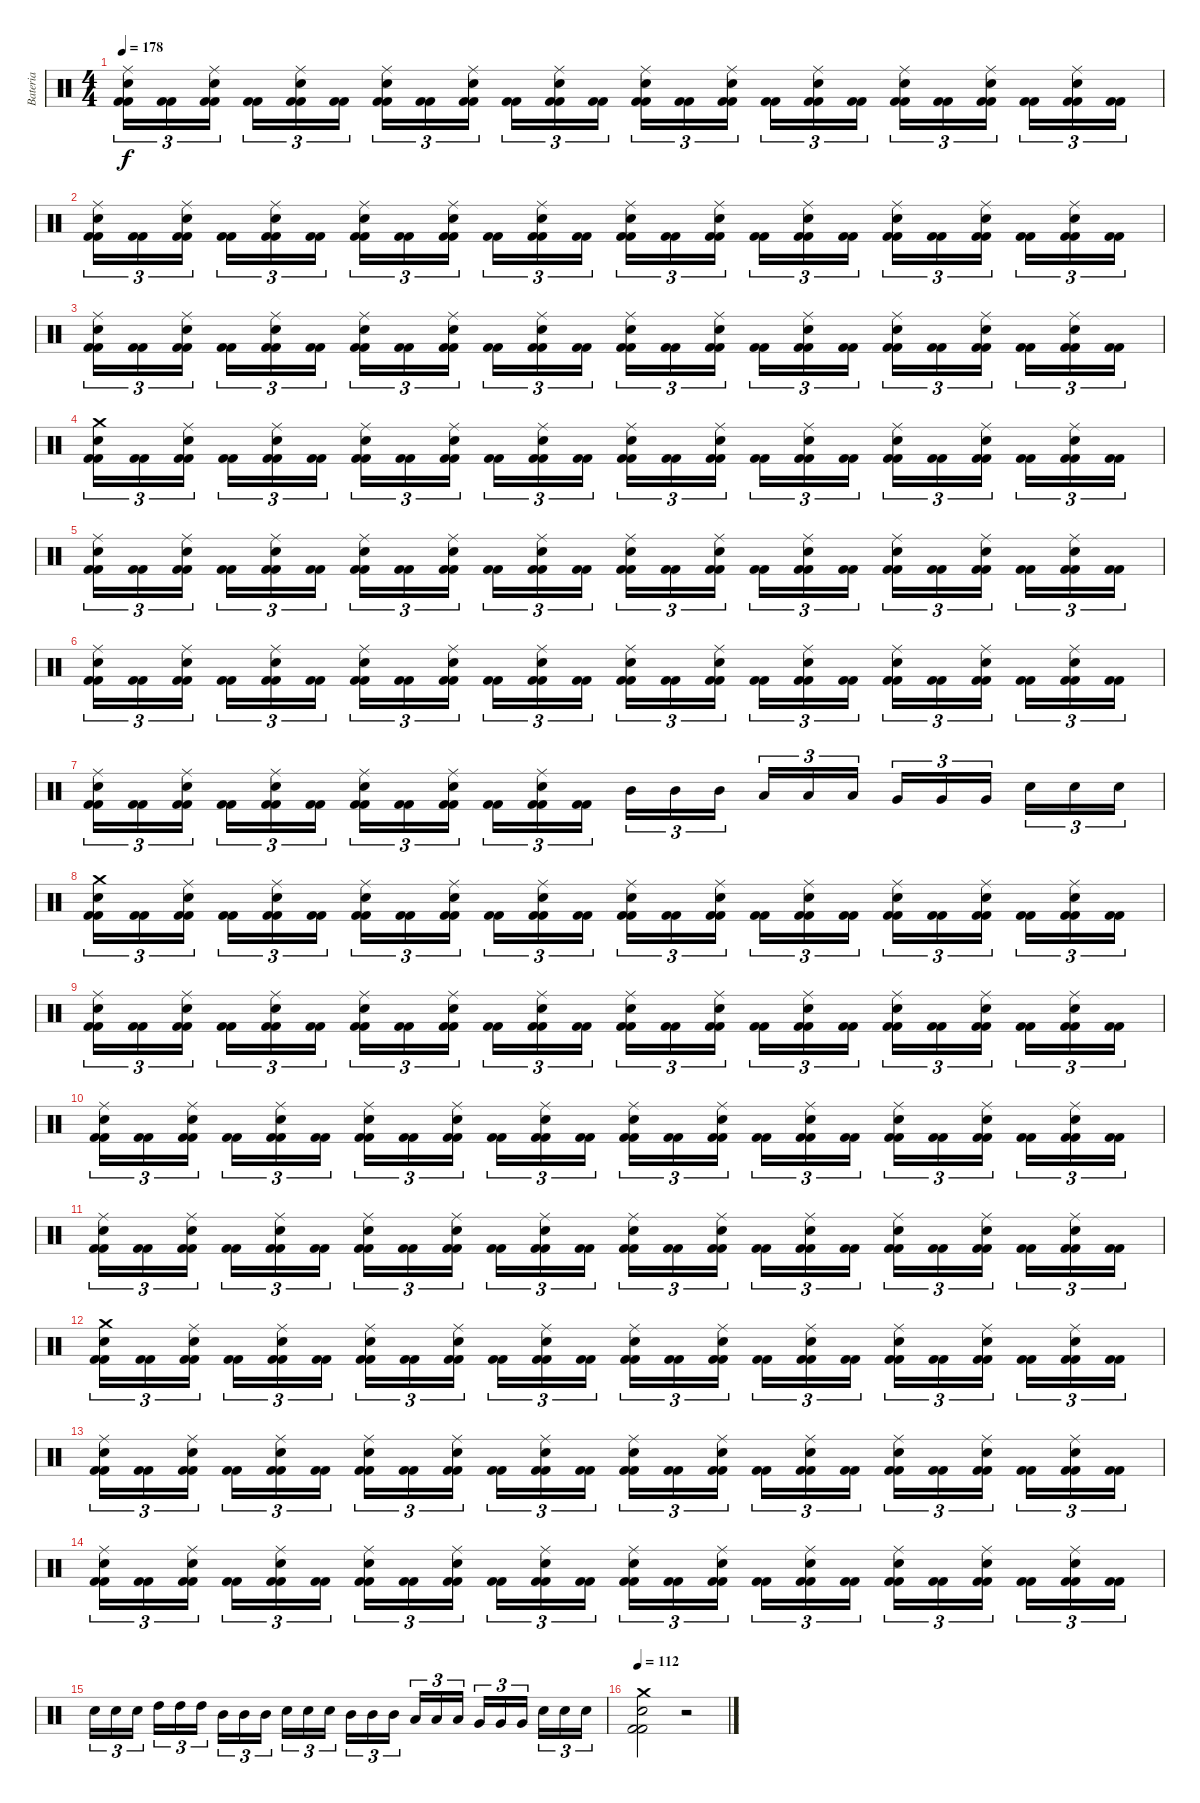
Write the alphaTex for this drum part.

\track ("Bateria" "Bateria") {instrument percussion}
\staff {score}
\articulation defaults
\ts (4 4)
\tempo 178
\clef neutral
\ks c
("Kick (hit) 2" "Kick (hit) 2" "Snare (hit) 2" "Ride (middle)").16{tu (3 2) dy f} ("Kick (hit) 2" "Kick (hit) 2").16{tu (3 2)} ("Kick (hit) 2" "Kick (hit) 2" "Snare (hit) 2" "Ride (middle)").16{tu (3 2)} ("Kick (hit) 2" "Kick (hit) 2").16{tu (3 2)} ("Kick (hit) 2" "Kick (hit) 2" "Snare (hit) 2" "Ride (middle)").16{tu (3 2)} ("Kick (hit) 2" "Kick (hit) 2").16{tu (3 2)} ("Kick (hit) 2" "Kick (hit) 2" "Snare (hit) 2" "Ride (middle)").16{tu (3 2)} ("Kick (hit) 2" "Kick (hit) 2").16{tu (3 2)} ("Kick (hit) 2" "Kick (hit) 2" "Snare (hit) 2" "Ride (middle)").16{tu (3 2)} ("Kick (hit) 2" "Kick (hit) 2").16{tu (3 2)} ("Kick (hit) 2" "Kick (hit) 2" "Snare (hit) 2" "Ride (middle)").16{tu (3 2)} ("Kick (hit) 2" "Kick (hit) 2").16{tu (3 2)} ("Kick (hit) 2" "Kick (hit) 2" "Snare (hit) 2" "Ride (middle)").16{tu (3 2)} ("Kick (hit) 2" "Kick (hit) 2").16{tu (3 2)} ("Kick (hit) 2" "Kick (hit) 2" "Snare (hit) 2" "Ride (middle)").16{tu (3 2)} ("Kick (hit) 2" "Kick (hit) 2").16{tu (3 2)} ("Kick (hit) 2" "Kick (hit) 2" "Snare (hit) 2" "Ride (middle)").16{tu (3 2)} ("Kick (hit) 2" "Kick (hit) 2").16{tu (3 2)} ("Kick (hit) 2" "Kick (hit) 2" "Snare (hit) 2" "Ride (middle)").16{tu (3 2)} ("Kick (hit) 2" "Kick (hit) 2").16{tu (3 2)} ("Kick (hit) 2" "Kick (hit) 2" "Snare (hit) 2" "Ride (middle)").16{tu (3 2)} ("Kick (hit) 2" "Kick (hit) 2").16{tu (3 2)} ("Kick (hit) 2" "Kick (hit) 2" "Snare (hit) 2" "Ride (middle)").16{tu (3 2)} ("Kick (hit) 2" "Kick (hit) 2").16{tu (3 2)} |
("Kick (hit) 2" "Kick (hit) 2" "Snare (hit) 2" "Ride (middle)").16{tu (3 2)} ("Kick (hit) 2" "Kick (hit) 2").16{tu (3 2)} ("Kick (hit) 2" "Kick (hit) 2" "Snare (hit) 2" "Ride (middle)").16{tu (3 2)} ("Kick (hit) 2" "Kick (hit) 2").16{tu (3 2)} ("Kick (hit) 2" "Kick (hit) 2" "Snare (hit) 2" "Ride (middle)").16{tu (3 2)} ("Kick (hit) 2" "Kick (hit) 2").16{tu (3 2)} ("Kick (hit) 2" "Kick (hit) 2" "Snare (hit) 2" "Ride (middle)").16{tu (3 2)} ("Kick (hit) 2" "Kick (hit) 2").16{tu (3 2)} ("Kick (hit) 2" "Kick (hit) 2" "Snare (hit) 2" "Ride (middle)").16{tu (3 2)} ("Kick (hit) 2" "Kick (hit) 2").16{tu (3 2)} ("Kick (hit) 2" "Kick (hit) 2" "Snare (hit) 2" "Ride (middle)").16{tu (3 2)} ("Kick (hit) 2" "Kick (hit) 2").16{tu (3 2)} ("Kick (hit) 2" "Kick (hit) 2" "Snare (hit) 2" "Ride (middle)").16{tu (3 2)} ("Kick (hit) 2" "Kick (hit) 2").16{tu (3 2)} ("Kick (hit) 2" "Kick (hit) 2" "Snare (hit) 2" "Ride (middle)").16{tu (3 2)} ("Kick (hit) 2" "Kick (hit) 2").16{tu (3 2)} ("Kick (hit) 2" "Kick (hit) 2" "Snare (hit) 2" "Ride (middle)").16{tu (3 2)} ("Kick (hit) 2" "Kick (hit) 2").16{tu (3 2)} ("Kick (hit) 2" "Kick (hit) 2" "Snare (hit) 2" "Ride (middle)").16{tu (3 2)} ("Kick (hit) 2" "Kick (hit) 2").16{tu (3 2)} ("Kick (hit) 2" "Kick (hit) 2" "Snare (hit) 2" "Ride (middle)").16{tu (3 2)} ("Kick (hit) 2" "Kick (hit) 2").16{tu (3 2)} ("Kick (hit) 2" "Kick (hit) 2" "Snare (hit) 2" "Ride (middle)").16{tu (3 2)} ("Kick (hit) 2" "Kick (hit) 2").16{tu (3 2)} |
("Kick (hit) 2" "Kick (hit) 2" "Snare (hit) 2" "Ride (middle)").16{tu (3 2)} ("Kick (hit) 2" "Kick (hit) 2").16{tu (3 2)} ("Kick (hit) 2" "Kick (hit) 2" "Snare (hit) 2" "Ride (middle)").16{tu (3 2)} ("Kick (hit) 2" "Kick (hit) 2").16{tu (3 2)} ("Kick (hit) 2" "Kick (hit) 2" "Snare (hit) 2" "Ride (middle)").16{tu (3 2)} ("Kick (hit) 2" "Kick (hit) 2").16{tu (3 2)} ("Kick (hit) 2" "Kick (hit) 2" "Snare (hit) 2" "Ride (middle)").16{tu (3 2)} ("Kick (hit) 2" "Kick (hit) 2").16{tu (3 2)} ("Kick (hit) 2" "Kick (hit) 2" "Snare (hit) 2" "Ride (middle)").16{tu (3 2)} ("Kick (hit) 2" "Kick (hit) 2").16{tu (3 2)} ("Kick (hit) 2" "Kick (hit) 2" "Snare (hit) 2" "Ride (middle)").16{tu (3 2)} ("Kick (hit) 2" "Kick (hit) 2").16{tu (3 2)} ("Kick (hit) 2" "Kick (hit) 2" "Snare (hit) 2" "Ride (middle)").16{tu (3 2)} ("Kick (hit) 2" "Kick (hit) 2").16{tu (3 2)} ("Kick (hit) 2" "Kick (hit) 2" "Snare (hit) 2" "Ride (middle)").16{tu (3 2)} ("Kick (hit) 2" "Kick (hit) 2").16{tu (3 2)} ("Kick (hit) 2" "Kick (hit) 2" "Snare (hit) 2" "Ride (middle)").16{tu (3 2)} ("Kick (hit) 2" "Kick (hit) 2").16{tu (3 2)} ("Kick (hit) 2" "Kick (hit) 2" "Snare (hit) 2" "Ride (middle)").16{tu (3 2)} ("Kick (hit) 2" "Kick (hit) 2").16{tu (3 2)} ("Kick (hit) 2" "Kick (hit) 2" "Snare (hit) 2" "Ride (middle)").16{tu (3 2)} ("Kick (hit) 2" "Kick (hit) 2").16{tu (3 2)} ("Kick (hit) 2" "Kick (hit) 2" "Snare (hit) 2" "Ride (middle)").16{tu (3 2)} ("Kick (hit) 2" "Kick (hit) 2").16{tu (3 2)} |
("Kick (hit) 2" "Kick (hit) 2" "Snare (hit) 2" "Crash medium (hit)").16{tu (3 2)} ("Kick (hit) 2" "Kick (hit) 2").16{tu (3 2)} ("Kick (hit) 2" "Kick (hit) 2" "Snare (hit) 2" "Ride (middle)").16{tu (3 2)} ("Kick (hit) 2" "Kick (hit) 2").16{tu (3 2)} ("Kick (hit) 2" "Kick (hit) 2" "Snare (hit) 2" "Ride (middle)").16{tu (3 2)} ("Kick (hit) 2" "Kick (hit) 2").16{tu (3 2)} ("Kick (hit) 2" "Kick (hit) 2" "Snare (hit) 2" "Ride (middle)").16{tu (3 2)} ("Kick (hit) 2" "Kick (hit) 2").16{tu (3 2)} ("Kick (hit) 2" "Kick (hit) 2" "Snare (hit) 2" "Ride (middle)").16{tu (3 2)} ("Kick (hit) 2" "Kick (hit) 2").16{tu (3 2)} ("Kick (hit) 2" "Kick (hit) 2" "Snare (hit) 2" "Ride (middle)").16{tu (3 2)} ("Kick (hit) 2" "Kick (hit) 2").16{tu (3 2)} ("Kick (hit) 2" "Kick (hit) 2" "Snare (hit) 2" "Ride (middle)").16{tu (3 2)} ("Kick (hit) 2" "Kick (hit) 2").16{tu (3 2)} ("Kick (hit) 2" "Kick (hit) 2" "Snare (hit) 2" "Ride (middle)").16{tu (3 2)} ("Kick (hit) 2" "Kick (hit) 2").16{tu (3 2)} ("Kick (hit) 2" "Kick (hit) 2" "Snare (hit) 2" "Ride (middle)").16{tu (3 2)} ("Kick (hit) 2" "Kick (hit) 2").16{tu (3 2)} ("Kick (hit) 2" "Kick (hit) 2" "Snare (hit) 2" "Ride (middle)").16{tu (3 2)} ("Kick (hit) 2" "Kick (hit) 2").16{tu (3 2)} ("Kick (hit) 2" "Kick (hit) 2" "Snare (hit) 2" "Ride (middle)").16{tu (3 2)} ("Kick (hit) 2" "Kick (hit) 2").16{tu (3 2)} ("Kick (hit) 2" "Kick (hit) 2" "Snare (hit) 2" "Ride (middle)").16{tu (3 2)} ("Kick (hit) 2" "Kick (hit) 2").16{tu (3 2)} |
("Kick (hit) 2" "Kick (hit) 2" "Snare (hit) 2" "Ride (middle)").16{tu (3 2)} ("Kick (hit) 2" "Kick (hit) 2").16{tu (3 2)} ("Kick (hit) 2" "Kick (hit) 2" "Snare (hit) 2" "Ride (middle)").16{tu (3 2)} ("Kick (hit) 2" "Kick (hit) 2").16{tu (3 2)} ("Kick (hit) 2" "Kick (hit) 2" "Snare (hit) 2" "Ride (middle)").16{tu (3 2)} ("Kick (hit) 2" "Kick (hit) 2").16{tu (3 2)} ("Kick (hit) 2" "Kick (hit) 2" "Snare (hit) 2" "Ride (middle)").16{tu (3 2)} ("Kick (hit) 2" "Kick (hit) 2").16{tu (3 2)} ("Kick (hit) 2" "Kick (hit) 2" "Snare (hit) 2" "Ride (middle)").16{tu (3 2)} ("Kick (hit) 2" "Kick (hit) 2").16{tu (3 2)} ("Kick (hit) 2" "Kick (hit) 2" "Snare (hit) 2" "Ride (middle)").16{tu (3 2)} ("Kick (hit) 2" "Kick (hit) 2").16{tu (3 2)} ("Kick (hit) 2" "Kick (hit) 2" "Snare (hit) 2" "Ride (middle)").16{tu (3 2)} ("Kick (hit) 2" "Kick (hit) 2").16{tu (3 2)} ("Kick (hit) 2" "Kick (hit) 2" "Snare (hit) 2" "Ride (middle)").16{tu (3 2)} ("Kick (hit) 2" "Kick (hit) 2").16{tu (3 2)} ("Kick (hit) 2" "Kick (hit) 2" "Snare (hit) 2" "Ride (middle)").16{tu (3 2)} ("Kick (hit) 2" "Kick (hit) 2").16{tu (3 2)} ("Kick (hit) 2" "Kick (hit) 2" "Snare (hit) 2" "Ride (middle)").16{tu (3 2)} ("Kick (hit) 2" "Kick (hit) 2").16{tu (3 2)} ("Kick (hit) 2" "Kick (hit) 2" "Snare (hit) 2" "Ride (middle)").16{tu (3 2)} ("Kick (hit) 2" "Kick (hit) 2").16{tu (3 2)} ("Kick (hit) 2" "Kick (hit) 2" "Snare (hit) 2" "Ride (middle)").16{tu (3 2)} ("Kick (hit) 2" "Kick (hit) 2").16{tu (3 2)} |
("Kick (hit) 2" "Kick (hit) 2" "Snare (hit) 2" "Ride (middle)").16{tu (3 2)} ("Kick (hit) 2" "Kick (hit) 2").16{tu (3 2)} ("Kick (hit) 2" "Kick (hit) 2" "Snare (hit) 2" "Ride (middle)").16{tu (3 2)} ("Kick (hit) 2" "Kick (hit) 2").16{tu (3 2)} ("Kick (hit) 2" "Kick (hit) 2" "Snare (hit) 2" "Ride (middle)").16{tu (3 2)} ("Kick (hit) 2" "Kick (hit) 2").16{tu (3 2)} ("Kick (hit) 2" "Kick (hit) 2" "Snare (hit) 2" "Ride (middle)").16{tu (3 2)} ("Kick (hit) 2" "Kick (hit) 2").16{tu (3 2)} ("Kick (hit) 2" "Kick (hit) 2" "Snare (hit) 2" "Ride (middle)").16{tu (3 2)} ("Kick (hit) 2" "Kick (hit) 2").16{tu (3 2)} ("Kick (hit) 2" "Kick (hit) 2" "Snare (hit) 2" "Ride (middle)").16{tu (3 2)} ("Kick (hit) 2" "Kick (hit) 2").16{tu (3 2)} ("Kick (hit) 2" "Kick (hit) 2" "Snare (hit) 2" "Ride (middle)").16{tu (3 2)} ("Kick (hit) 2" "Kick (hit) 2").16{tu (3 2)} ("Kick (hit) 2" "Kick (hit) 2" "Snare (hit) 2" "Ride (middle)").16{tu (3 2)} ("Kick (hit) 2" "Kick (hit) 2").16{tu (3 2)} ("Kick (hit) 2" "Kick (hit) 2" "Snare (hit) 2" "Ride (middle)").16{tu (3 2)} ("Kick (hit) 2" "Kick (hit) 2").16{tu (3 2)} ("Kick (hit) 2" "Kick (hit) 2" "Snare (hit) 2" "Ride (middle)").16{tu (3 2)} ("Kick (hit) 2" "Kick (hit) 2").16{tu (3 2)} ("Kick (hit) 2" "Kick (hit) 2" "Snare (hit) 2" "Ride (middle)").16{tu (3 2)} ("Kick (hit) 2" "Kick (hit) 2").16{tu (3 2)} ("Kick (hit) 2" "Kick (hit) 2" "Snare (hit) 2" "Ride (middle)").16{tu (3 2)} ("Kick (hit) 2" "Kick (hit) 2").16{tu (3 2)} |
("Kick (hit) 2" "Kick (hit) 2" "Snare (hit) 2" "Ride (middle)").16{tu (3 2)} ("Kick (hit) 2" "Kick (hit) 2").16{tu (3 2)} ("Kick (hit) 2" "Kick (hit) 2" "Snare (hit) 2" "Ride (middle)").16{tu (3 2)} ("Kick (hit) 2" "Kick (hit) 2").16{tu (3 2)} ("Kick (hit) 2" "Kick (hit) 2" "Snare (hit) 2" "Ride (middle)").16{tu (3 2)} ("Kick (hit) 2" "Kick (hit) 2").16{tu (3 2)} ("Kick (hit) 2" "Kick (hit) 2" "Snare (hit) 2" "Ride (middle)").16{tu (3 2)} ("Kick (hit) 2" "Kick (hit) 2").16{tu (3 2)} ("Kick (hit) 2" "Kick (hit) 2" "Snare (hit) 2" "Ride (middle)").16{tu (3 2)} ("Kick (hit) 2" "Kick (hit) 2").16{tu (3 2)} ("Kick (hit) 2" "Kick (hit) 2" "Snare (hit) 2" "Ride (middle)").16{tu (3 2)} ("Kick (hit) 2" "Kick (hit) 2").16{tu (3 2)} "Mid Tom (hit)".16{tu (3 2)} "Mid Tom (hit)".16{tu (3 2)} "Mid Tom (hit)".16{tu (3 2)} "Low Tom (hit)".16{tu (3 2)} "Low Tom (hit)".16{tu (3 2)} "Low Tom (hit)".16{tu (3 2)} "Very Low Tom (hit)".16{tu (3 2)} "Very Low Tom (hit)".16{tu (3 2)} "Very Low Tom (hit)".16{tu (3 2)} "Snare (hit) 2".16{tu (3 2)} "Snare (hit) 2".16{tu (3 2)} "Snare (hit) 2".16{tu (3 2)} |
("Kick (hit) 2" "Kick (hit) 2" "Snare (hit) 2" "Crash medium (hit)").16{tu (3 2)} ("Kick (hit) 2" "Kick (hit) 2").16{tu (3 2)} ("Kick (hit) 2" "Kick (hit) 2" "Snare (hit) 2" "Ride (middle)").16{tu (3 2)} ("Kick (hit) 2" "Kick (hit) 2").16{tu (3 2)} ("Kick (hit) 2" "Kick (hit) 2" "Snare (hit) 2" "Ride (middle)").16{tu (3 2)} ("Kick (hit) 2" "Kick (hit) 2").16{tu (3 2)} ("Kick (hit) 2" "Kick (hit) 2" "Snare (hit) 2" "Ride (middle)").16{tu (3 2)} ("Kick (hit) 2" "Kick (hit) 2").16{tu (3 2)} ("Kick (hit) 2" "Kick (hit) 2" "Snare (hit) 2" "Ride (middle)").16{tu (3 2)} ("Kick (hit) 2" "Kick (hit) 2").16{tu (3 2)} ("Kick (hit) 2" "Kick (hit) 2" "Snare (hit) 2" "Ride (middle)").16{tu (3 2)} ("Kick (hit) 2" "Kick (hit) 2").16{tu (3 2)} ("Kick (hit) 2" "Kick (hit) 2" "Snare (hit) 2" "Ride (middle)").16{tu (3 2)} ("Kick (hit) 2" "Kick (hit) 2").16{tu (3 2)} ("Kick (hit) 2" "Kick (hit) 2" "Snare (hit) 2" "Ride (middle)").16{tu (3 2)} ("Kick (hit) 2" "Kick (hit) 2").16{tu (3 2)} ("Kick (hit) 2" "Kick (hit) 2" "Snare (hit) 2" "Ride (middle)").16{tu (3 2)} ("Kick (hit) 2" "Kick (hit) 2").16{tu (3 2)} ("Kick (hit) 2" "Kick (hit) 2" "Snare (hit) 2" "Ride (middle)").16{tu (3 2)} ("Kick (hit) 2" "Kick (hit) 2").16{tu (3 2)} ("Kick (hit) 2" "Kick (hit) 2" "Snare (hit) 2" "Ride (middle)").16{tu (3 2)} ("Kick (hit) 2" "Kick (hit) 2").16{tu (3 2)} ("Kick (hit) 2" "Kick (hit) 2" "Snare (hit) 2" "Ride (middle)").16{tu (3 2)} ("Kick (hit) 2" "Kick (hit) 2").16{tu (3 2)} |
("Kick (hit) 2" "Kick (hit) 2" "Snare (hit) 2" "Ride (middle)").16{tu (3 2)} ("Kick (hit) 2" "Kick (hit) 2").16{tu (3 2)} ("Kick (hit) 2" "Kick (hit) 2" "Snare (hit) 2" "Ride (middle)").16{tu (3 2)} ("Kick (hit) 2" "Kick (hit) 2").16{tu (3 2)} ("Kick (hit) 2" "Kick (hit) 2" "Snare (hit) 2" "Ride (middle)").16{tu (3 2)} ("Kick (hit) 2" "Kick (hit) 2").16{tu (3 2)} ("Kick (hit) 2" "Kick (hit) 2" "Snare (hit) 2" "Ride (middle)").16{tu (3 2)} ("Kick (hit) 2" "Kick (hit) 2").16{tu (3 2)} ("Kick (hit) 2" "Kick (hit) 2" "Snare (hit) 2" "Ride (middle)").16{tu (3 2)} ("Kick (hit) 2" "Kick (hit) 2").16{tu (3 2)} ("Kick (hit) 2" "Kick (hit) 2" "Snare (hit) 2" "Ride (middle)").16{tu (3 2)} ("Kick (hit) 2" "Kick (hit) 2").16{tu (3 2)} ("Kick (hit) 2" "Kick (hit) 2" "Snare (hit) 2" "Ride (middle)").16{tu (3 2)} ("Kick (hit) 2" "Kick (hit) 2").16{tu (3 2)} ("Kick (hit) 2" "Kick (hit) 2" "Snare (hit) 2" "Ride (middle)").16{tu (3 2)} ("Kick (hit) 2" "Kick (hit) 2").16{tu (3 2)} ("Kick (hit) 2" "Kick (hit) 2" "Snare (hit) 2" "Ride (middle)").16{tu (3 2)} ("Kick (hit) 2" "Kick (hit) 2").16{tu (3 2)} ("Kick (hit) 2" "Kick (hit) 2" "Snare (hit) 2" "Ride (middle)").16{tu (3 2)} ("Kick (hit) 2" "Kick (hit) 2").16{tu (3 2)} ("Kick (hit) 2" "Kick (hit) 2" "Snare (hit) 2" "Ride (middle)").16{tu (3 2)} ("Kick (hit) 2" "Kick (hit) 2").16{tu (3 2)} ("Kick (hit) 2" "Kick (hit) 2" "Snare (hit) 2" "Ride (middle)").16{tu (3 2)} ("Kick (hit) 2" "Kick (hit) 2").16{tu (3 2)} |
("Kick (hit) 2" "Kick (hit) 2" "Snare (hit) 2" "Ride (middle)").16{tu (3 2)} ("Kick (hit) 2" "Kick (hit) 2").16{tu (3 2)} ("Kick (hit) 2" "Kick (hit) 2" "Snare (hit) 2" "Ride (middle)").16{tu (3 2)} ("Kick (hit) 2" "Kick (hit) 2").16{tu (3 2)} ("Kick (hit) 2" "Kick (hit) 2" "Snare (hit) 2" "Ride (middle)").16{tu (3 2)} ("Kick (hit) 2" "Kick (hit) 2").16{tu (3 2)} ("Kick (hit) 2" "Kick (hit) 2" "Snare (hit) 2" "Ride (middle)").16{tu (3 2)} ("Kick (hit) 2" "Kick (hit) 2").16{tu (3 2)} ("Kick (hit) 2" "Kick (hit) 2" "Snare (hit) 2" "Ride (middle)").16{tu (3 2)} ("Kick (hit) 2" "Kick (hit) 2").16{tu (3 2)} ("Kick (hit) 2" "Kick (hit) 2" "Snare (hit) 2" "Ride (middle)").16{tu (3 2)} ("Kick (hit) 2" "Kick (hit) 2").16{tu (3 2)} ("Kick (hit) 2" "Kick (hit) 2" "Snare (hit) 2" "Ride (middle)").16{tu (3 2)} ("Kick (hit) 2" "Kick (hit) 2").16{tu (3 2)} ("Kick (hit) 2" "Kick (hit) 2" "Snare (hit) 2" "Ride (middle)").16{tu (3 2)} ("Kick (hit) 2" "Kick (hit) 2").16{tu (3 2)} ("Kick (hit) 2" "Kick (hit) 2" "Snare (hit) 2" "Ride (middle)").16{tu (3 2)} ("Kick (hit) 2" "Kick (hit) 2").16{tu (3 2)} ("Kick (hit) 2" "Kick (hit) 2" "Snare (hit) 2" "Ride (middle)").16{tu (3 2)} ("Kick (hit) 2" "Kick (hit) 2").16{tu (3 2)} ("Kick (hit) 2" "Kick (hit) 2" "Snare (hit) 2" "Ride (middle)").16{tu (3 2)} ("Kick (hit) 2" "Kick (hit) 2").16{tu (3 2)} ("Kick (hit) 2" "Kick (hit) 2" "Snare (hit) 2" "Ride (middle)").16{tu (3 2)} ("Kick (hit) 2" "Kick (hit) 2").16{tu (3 2)} |
("Kick (hit) 2" "Kick (hit) 2" "Snare (hit) 2" "Ride (middle)").16{tu (3 2)} ("Kick (hit) 2" "Kick (hit) 2").16{tu (3 2)} ("Kick (hit) 2" "Kick (hit) 2" "Snare (hit) 2" "Ride (middle)").16{tu (3 2)} ("Kick (hit) 2" "Kick (hit) 2").16{tu (3 2)} ("Kick (hit) 2" "Kick (hit) 2" "Snare (hit) 2" "Ride (middle)").16{tu (3 2)} ("Kick (hit) 2" "Kick (hit) 2").16{tu (3 2)} ("Kick (hit) 2" "Kick (hit) 2" "Snare (hit) 2" "Ride (middle)").16{tu (3 2)} ("Kick (hit) 2" "Kick (hit) 2").16{tu (3 2)} ("Kick (hit) 2" "Kick (hit) 2" "Snare (hit) 2" "Ride (middle)").16{tu (3 2)} ("Kick (hit) 2" "Kick (hit) 2").16{tu (3 2)} ("Kick (hit) 2" "Kick (hit) 2" "Snare (hit) 2" "Ride (middle)").16{tu (3 2)} ("Kick (hit) 2" "Kick (hit) 2").16{tu (3 2)} ("Kick (hit) 2" "Kick (hit) 2" "Snare (hit) 2" "Ride (middle)").16{tu (3 2)} ("Kick (hit) 2" "Kick (hit) 2").16{tu (3 2)} ("Kick (hit) 2" "Kick (hit) 2" "Snare (hit) 2" "Ride (middle)").16{tu (3 2)} ("Kick (hit) 2" "Kick (hit) 2").16{tu (3 2)} ("Kick (hit) 2" "Kick (hit) 2" "Snare (hit) 2" "Ride (middle)").16{tu (3 2)} ("Kick (hit) 2" "Kick (hit) 2").16{tu (3 2)} ("Kick (hit) 2" "Kick (hit) 2" "Snare (hit) 2" "Ride (middle)").16{tu (3 2)} ("Kick (hit) 2" "Kick (hit) 2").16{tu (3 2)} ("Kick (hit) 2" "Kick (hit) 2" "Snare (hit) 2" "Ride (middle)").16{tu (3 2)} ("Kick (hit) 2" "Kick (hit) 2").16{tu (3 2)} ("Kick (hit) 2" "Kick (hit) 2" "Snare (hit) 2" "Ride (middle)").16{tu (3 2)} ("Kick (hit) 2" "Kick (hit) 2").16{tu (3 2)} |
("Kick (hit) 2" "Kick (hit) 2" "Snare (hit) 2" "Crash medium (hit)").16{tu (3 2)} ("Kick (hit) 2" "Kick (hit) 2").16{tu (3 2)} ("Kick (hit) 2" "Kick (hit) 2" "Snare (hit) 2" "Ride (middle)").16{tu (3 2)} ("Kick (hit) 2" "Kick (hit) 2").16{tu (3 2)} ("Kick (hit) 2" "Kick (hit) 2" "Snare (hit) 2" "Ride (middle)").16{tu (3 2)} ("Kick (hit) 2" "Kick (hit) 2").16{tu (3 2)} ("Kick (hit) 2" "Kick (hit) 2" "Snare (hit) 2" "Ride (middle)").16{tu (3 2)} ("Kick (hit) 2" "Kick (hit) 2").16{tu (3 2)} ("Kick (hit) 2" "Kick (hit) 2" "Snare (hit) 2" "Ride (middle)").16{tu (3 2)} ("Kick (hit) 2" "Kick (hit) 2").16{tu (3 2)} ("Kick (hit) 2" "Kick (hit) 2" "Snare (hit) 2" "Ride (middle)").16{tu (3 2)} ("Kick (hit) 2" "Kick (hit) 2").16{tu (3 2)} ("Kick (hit) 2" "Kick (hit) 2" "Snare (hit) 2" "Ride (middle)").16{tu (3 2)} ("Kick (hit) 2" "Kick (hit) 2").16{tu (3 2)} ("Kick (hit) 2" "Kick (hit) 2" "Snare (hit) 2" "Ride (middle)").16{tu (3 2)} ("Kick (hit) 2" "Kick (hit) 2").16{tu (3 2)} ("Kick (hit) 2" "Kick (hit) 2" "Snare (hit) 2" "Ride (middle)").16{tu (3 2)} ("Kick (hit) 2" "Kick (hit) 2").16{tu (3 2)} ("Kick (hit) 2" "Kick (hit) 2" "Snare (hit) 2" "Ride (middle)").16{tu (3 2)} ("Kick (hit) 2" "Kick (hit) 2").16{tu (3 2)} ("Kick (hit) 2" "Kick (hit) 2" "Snare (hit) 2" "Ride (middle)").16{tu (3 2)} ("Kick (hit) 2" "Kick (hit) 2").16{tu (3 2)} ("Kick (hit) 2" "Kick (hit) 2" "Snare (hit) 2" "Ride (middle)").16{tu (3 2)} ("Kick (hit) 2" "Kick (hit) 2").16{tu (3 2)} |
("Kick (hit) 2" "Kick (hit) 2" "Snare (hit) 2" "Ride (middle)").16{tu (3 2)} ("Kick (hit) 2" "Kick (hit) 2").16{tu (3 2)} ("Kick (hit) 2" "Kick (hit) 2" "Snare (hit) 2" "Ride (middle)").16{tu (3 2)} ("Kick (hit) 2" "Kick (hit) 2").16{tu (3 2)} ("Kick (hit) 2" "Kick (hit) 2" "Snare (hit) 2" "Ride (middle)").16{tu (3 2)} ("Kick (hit) 2" "Kick (hit) 2").16{tu (3 2)} ("Kick (hit) 2" "Kick (hit) 2" "Snare (hit) 2" "Ride (middle)").16{tu (3 2)} ("Kick (hit) 2" "Kick (hit) 2").16{tu (3 2)} ("Kick (hit) 2" "Kick (hit) 2" "Snare (hit) 2" "Ride (middle)").16{tu (3 2)} ("Kick (hit) 2" "Kick (hit) 2").16{tu (3 2)} ("Kick (hit) 2" "Kick (hit) 2" "Snare (hit) 2" "Ride (middle)").16{tu (3 2)} ("Kick (hit) 2" "Kick (hit) 2").16{tu (3 2)} ("Kick (hit) 2" "Kick (hit) 2" "Snare (hit) 2" "Ride (middle)").16{tu (3 2)} ("Kick (hit) 2" "Kick (hit) 2").16{tu (3 2)} ("Kick (hit) 2" "Kick (hit) 2" "Snare (hit) 2" "Ride (middle)").16{tu (3 2)} ("Kick (hit) 2" "Kick (hit) 2").16{tu (3 2)} ("Kick (hit) 2" "Kick (hit) 2" "Snare (hit) 2" "Ride (middle)").16{tu (3 2)} ("Kick (hit) 2" "Kick (hit) 2").16{tu (3 2)} ("Kick (hit) 2" "Kick (hit) 2" "Snare (hit) 2" "Ride (middle)").16{tu (3 2)} ("Kick (hit) 2" "Kick (hit) 2").16{tu (3 2)} ("Kick (hit) 2" "Kick (hit) 2" "Snare (hit) 2" "Ride (middle)").16{tu (3 2)} ("Kick (hit) 2" "Kick (hit) 2").16{tu (3 2)} ("Kick (hit) 2" "Kick (hit) 2" "Snare (hit) 2" "Ride (middle)").16{tu (3 2)} ("Kick (hit) 2" "Kick (hit) 2").16{tu (3 2)} |
("Kick (hit) 2" "Kick (hit) 2" "Snare (hit) 2" "Ride (middle)").16{tu (3 2)} ("Kick (hit) 2" "Kick (hit) 2").16{tu (3 2)} ("Kick (hit) 2" "Kick (hit) 2" "Snare (hit) 2" "Ride (middle)").16{tu (3 2)} ("Kick (hit) 2" "Kick (hit) 2").16{tu (3 2)} ("Kick (hit) 2" "Kick (hit) 2" "Snare (hit) 2" "Ride (middle)").16{tu (3 2)} ("Kick (hit) 2" "Kick (hit) 2").16{tu (3 2)} ("Kick (hit) 2" "Kick (hit) 2" "Snare (hit) 2" "Ride (middle)").16{tu (3 2)} ("Kick (hit) 2" "Kick (hit) 2").16{tu (3 2)} ("Kick (hit) 2" "Kick (hit) 2" "Snare (hit) 2" "Ride (middle)").16{tu (3 2)} ("Kick (hit) 2" "Kick (hit) 2").16{tu (3 2)} ("Kick (hit) 2" "Kick (hit) 2" "Snare (hit) 2" "Ride (middle)").16{tu (3 2)} ("Kick (hit) 2" "Kick (hit) 2").16{tu (3 2)} ("Kick (hit) 2" "Kick (hit) 2" "Snare (hit) 2" "Ride (middle)").16{tu (3 2)} ("Kick (hit) 2" "Kick (hit) 2").16{tu (3 2)} ("Kick (hit) 2" "Kick (hit) 2" "Snare (hit) 2" "Ride (middle)").16{tu (3 2)} ("Kick (hit) 2" "Kick (hit) 2").16{tu (3 2)} ("Kick (hit) 2" "Kick (hit) 2" "Snare (hit) 2" "Ride (middle)").16{tu (3 2)} ("Kick (hit) 2" "Kick (hit) 2").16{tu (3 2)} ("Kick (hit) 2" "Kick (hit) 2" "Snare (hit) 2" "Ride (middle)").16{tu (3 2)} ("Kick (hit) 2" "Kick (hit) 2").16{tu (3 2)} ("Kick (hit) 2" "Kick (hit) 2" "Snare (hit) 2" "Ride (middle)").16{tu (3 2)} ("Kick (hit) 2" "Kick (hit) 2").16{tu (3 2)} ("Kick (hit) 2" "Kick (hit) 2" "Snare (hit) 2" "Ride (middle)").16{tu (3 2)} ("Kick (hit) 2" "Kick (hit) 2").16{tu (3 2)} |
"Snare (hit) 2".16{tu (3 2)} "Snare (hit) 2".16{tu (3 2)} "Snare (hit) 2".16{tu (3 2)} "High Tom (hit)".16{tu (3 2)} "High Tom (hit)".16{tu (3 2)} "High Tom (hit)".16{tu (3 2)} "Mid Tom (hit)".16{tu (3 2)} "Mid Tom (hit)".16{tu (3 2)} "Mid Tom (hit)".16{tu (3 2)} "Snare (hit) 2".16{tu (3 2)} "Snare (hit) 2".16{tu (3 2)} "Snare (hit) 2".16{tu (3 2)} "Mid Tom (hit)".16{tu (3 2)} "Mid Tom (hit)".16{tu (3 2)} "Mid Tom (hit)".16{tu (3 2)} "Low Tom (hit)".16{tu (3 2)} "Low Tom (hit)".16{tu (3 2)} "Low Tom (hit)".16{tu (3 2)} "Very Low Tom (hit)".16{tu (3 2)} "Very Low Tom (hit)".16{tu (3 2)} "Very Low Tom (hit)".16{tu (3 2)} "Snare (hit) 2".16{tu (3 2)} "Snare (hit) 2".16{tu (3 2)} "Snare (hit) 2".16{tu (3 2)} |
\tempo 112
("Kick (hit) 2" "Kick (hit) 2" "Snare (hit) 2" "Crash medium (hit)").2 r.2
